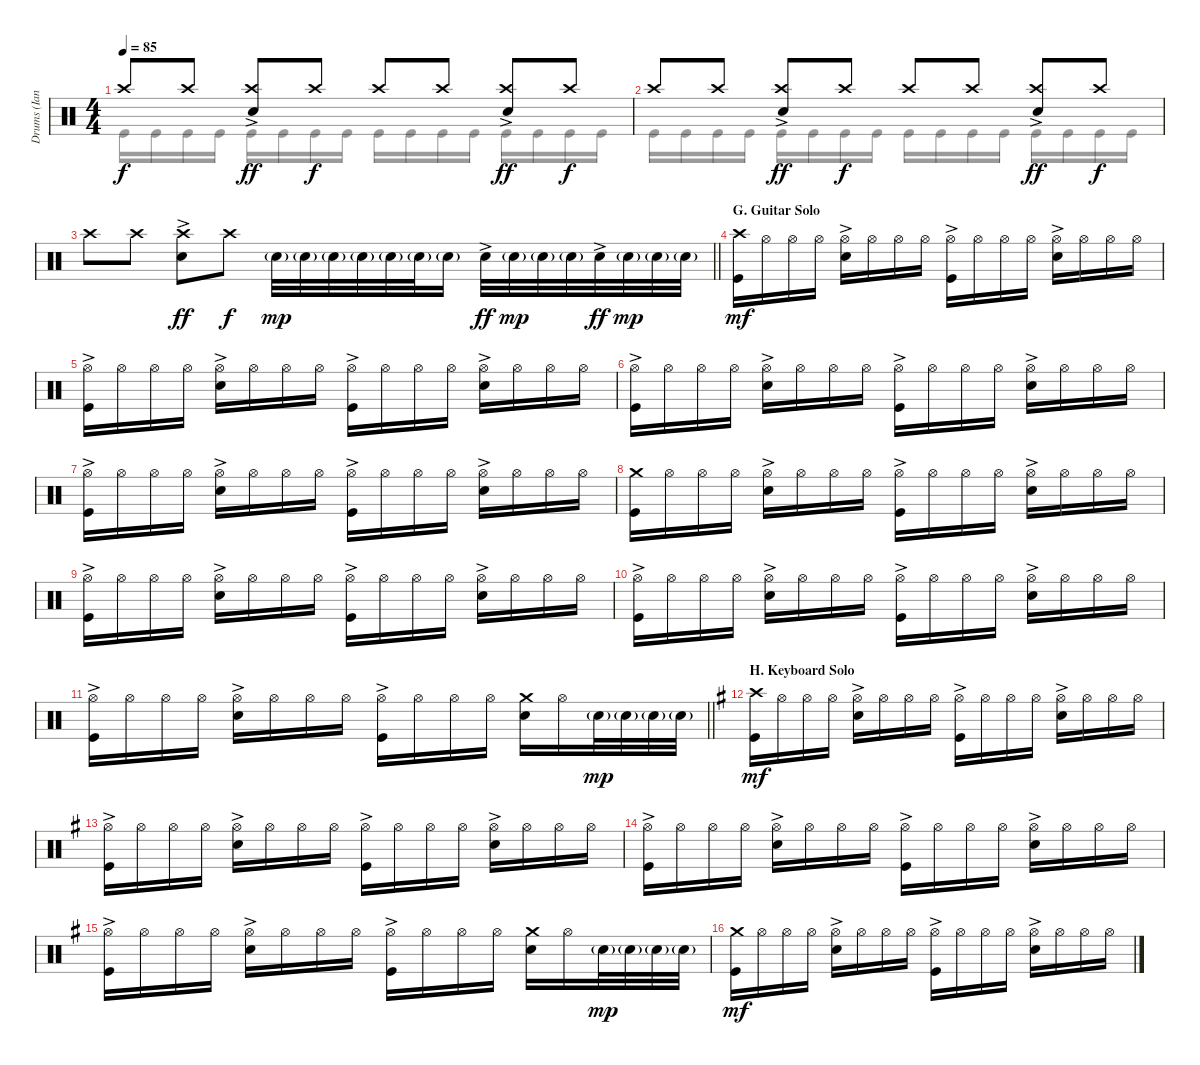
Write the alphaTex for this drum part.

\track ("Drums (Ian Paice)" "Drums (Ian") {instrument percussion}
\staff {score}
\articulation defaults
\voice
\ts (4 4)
\tempo 85
\clef neutral
\ks aminor "Crash high (hit)".8{dy f} "Crash high (hit)".8
("Crash high (hit)"{ac} "Electric Snare (hit)").8{dy ff} "Crash high (hit)".8{dy f} "Crash high (hit)".8 "Crash high (hit)".8 ("Crash high (hit)"{ac} "Electric Snare (hit)").8{dy ff} "Crash high (hit)".8{dy f} |
"Crash high (hit)".8 "Crash high (hit)".8 ("Crash high (hit)"{ac} "Electric Snare (hit)").8{dy ff} "Crash high (hit)".8{dy f} "Crash high (hit)".8 "Crash high (hit)".8 ("Crash high (hit)"{ac} "Electric Snare (hit)").8{dy ff} "Crash high (hit)".8{dy f} |
\barLineRight lightlight "Crash high (hit)".8 "Crash high (hit)".8
("Crash high (hit)"{ac} "Electric Snare (hit)").8{dy ff} "Crash high (hit)".8{dy f} "Electric Snare (hit)"{g}.32{dy mp} "Electric Snare (hit)"{g}.32 "Electric Snare (hit)"{g}.32 "Electric Snare (hit)"{g}.32 "Electric Snare (hit)"{g}.32 "Electric Snare (hit)"{g}.32 "Electric Snare (hit)"{g}.16 "Electric Snare (hit)"{ac}.32{dy ff} "Electric Snare (hit)"{g}.32{dy mp} "Electric Snare (hit)"{g}.32 "Electric Snare (hit)"{g}.32 "Electric Snare (hit)"{ac}.32{dy ff} "Electric Snare (hit)"{g}.32{dy mp} "Electric Snare (hit)"{g}.32 "Electric Snare (hit)"{g}.32 |
\section ("" "G. Guitar Solo")
("Crash high (hit)" "Kick (hit)").16{dy mf} "Hi-Hat (open)".16 "Hi-Hat (open)".16 "Hi-Hat (open)".16 ("Hi-Hat (open)"{ac} "Electric Snare (hit)").16 "Hi-Hat (open)".16 "Hi-Hat (open)".16 "Hi-Hat (open)".16 ("Hi-Hat (open)"{ac} "Kick (hit)").16 "Hi-Hat (open)".16 "Hi-Hat (open)".16 "Hi-Hat (open)".16 ("Hi-Hat (open)"{ac} "Electric Snare (hit)").16 "Hi-Hat (open)".16 "Hi-Hat (open)".16 "Hi-Hat (open)".16 |
("Hi-Hat (open)"{ac} "Kick (hit)").16 "Hi-Hat (open)".16 "Hi-Hat (open)".16 "Hi-Hat (open)".16 ("Hi-Hat (open)"{ac} "Electric Snare (hit)").16 "Hi-Hat (open)".16 "Hi-Hat (open)".16 "Hi-Hat (open)".16 ("Hi-Hat (open)"{ac} "Kick (hit)").16 "Hi-Hat (open)".16 "Hi-Hat (open)".16 "Hi-Hat (open)".16 ("Hi-Hat (open)"{ac} "Electric Snare (hit)").16 "Hi-Hat (open)".16 "Hi-Hat (open)".16 "Hi-Hat (open)".16 |
("Hi-Hat (open)"{ac} "Kick (hit)").16 "Hi-Hat (open)".16 "Hi-Hat (open)".16 "Hi-Hat (open)".16 ("Hi-Hat (open)"{ac} "Electric Snare (hit)").16 "Hi-Hat (open)".16 "Hi-Hat (open)".16 "Hi-Hat (open)".16 ("Hi-Hat (open)"{ac} "Kick (hit)").16 "Hi-Hat (open)".16 "Hi-Hat (open)".16 "Hi-Hat (open)".16 ("Hi-Hat (open)"{ac} "Electric Snare (hit)").16 "Hi-Hat (open)".16 "Hi-Hat (open)".16 "Hi-Hat (open)".16 |
("Hi-Hat (open)"{ac} "Kick (hit)").16 "Hi-Hat (open)".16 "Hi-Hat (open)".16 "Hi-Hat (open)".16 ("Hi-Hat (open)"{ac} "Electric Snare (hit)").16 "Hi-Hat (open)".16 "Hi-Hat (open)".16 "Hi-Hat (open)".16 ("Hi-Hat (open)"{ac} "Kick (hit)").16 "Hi-Hat (open)".16 "Hi-Hat (open)".16 "Hi-Hat (open)".16 ("Hi-Hat (open)"{ac} "Electric Snare (hit)").16 "Hi-Hat (open)".16 "Hi-Hat (open)".16 "Hi-Hat (open)".16 |
("Crash medium (hit)" "Kick (hit)").16 "Hi-Hat (open)".16 "Hi-Hat (open)".16 "Hi-Hat (open)".16 ("Hi-Hat (open)"{ac} "Electric Snare (hit)").16 "Hi-Hat (open)".16 "Hi-Hat (open)".16 "Hi-Hat (open)".16 ("Hi-Hat (open)"{ac} "Kick (hit)").16 "Hi-Hat (open)".16 "Hi-Hat (open)".16 "Hi-Hat (open)".16 ("Hi-Hat (open)"{ac} "Electric Snare (hit)").16 "Hi-Hat (open)".16 "Hi-Hat (open)".16 "Hi-Hat (open)".16 |
("Hi-Hat (open)"{ac} "Kick (hit)").16 "Hi-Hat (open)".16 "Hi-Hat (open)".16 "Hi-Hat (open)".16 ("Hi-Hat (open)"{ac} "Electric Snare (hit)").16 "Hi-Hat (open)".16 "Hi-Hat (open)".16 "Hi-Hat (open)".16 ("Hi-Hat (open)"{ac} "Kick (hit)").16 "Hi-Hat (open)".16 "Hi-Hat (open)".16 "Hi-Hat (open)".16 ("Hi-Hat (open)"{ac} "Electric Snare (hit)").16 "Hi-Hat (open)".16 "Hi-Hat (open)".16 "Hi-Hat (open)".16 |
("Hi-Hat (open)"{ac} "Kick (hit)").16 "Hi-Hat (open)".16 "Hi-Hat (open)".16 "Hi-Hat (open)".16 ("Hi-Hat (open)"{ac} "Electric Snare (hit)").16 "Hi-Hat (open)".16 "Hi-Hat (open)".16 "Hi-Hat (open)".16 ("Hi-Hat (open)"{ac} "Kick (hit)").16 "Hi-Hat (open)".16 "Hi-Hat (open)".16 "Hi-Hat (open)".16 ("Hi-Hat (open)"{ac} "Electric Snare (hit)").16 "Hi-Hat (open)".16 "Hi-Hat (open)".16 "Hi-Hat (open)".16 |
\barLineRight lightlight
("Hi-Hat (open)"{ac} "Kick (hit)").16 "Hi-Hat (open)".16 "Hi-Hat (open)".16 "Hi-Hat (open)".16 ("Hi-Hat (open)"{ac} "Electric Snare (hit)").16 "Hi-Hat (open)".16 "Hi-Hat (open)".16 "Hi-Hat (open)".16 ("Hi-Hat (open)"{ac} "Kick (hit)").16 "Hi-Hat (open)".16 "Hi-Hat (open)".16 "Hi-Hat (open)".16 ("Crash medium (hit)" "Electric Snare (hit)").16 "Hi-Hat (open)".16 "Electric Snare (hit)"{g}.32{dy mp} "Electric Snare (hit)"{g}.32 "Electric Snare (hit)"{g}.32 "Electric Snare (hit)"{g}.32 |
\section ("" "H. Keyboard Solo")
\ks eminor
("Crash high (hit)" "Kick (hit)").16{dy mf} "Hi-Hat (open)".16 "Hi-Hat (open)".16 "Hi-Hat (open)".16 ("Hi-Hat (open)"{ac} "Electric Snare (hit)").16 "Hi-Hat (open)".16 "Hi-Hat (open)".16 "Hi-Hat (open)".16 ("Hi-Hat (open)"{ac} "Kick (hit)").16 "Hi-Hat (open)".16 "Hi-Hat (open)".16 "Hi-Hat (open)".16 ("Hi-Hat (open)"{ac} "Electric Snare (hit)").16 "Hi-Hat (open)".16 "Hi-Hat (open)".16 "Hi-Hat (open)".16 |
("Hi-Hat (open)"{ac} "Kick (hit)").16 "Hi-Hat (open)".16 "Hi-Hat (open)".16 "Hi-Hat (open)".16 ("Hi-Hat (open)"{ac} "Electric Snare (hit)").16 "Hi-Hat (open)".16 "Hi-Hat (open)".16 "Hi-Hat (open)".16 ("Hi-Hat (open)"{ac} "Kick (hit)").16 "Hi-Hat (open)".16 "Hi-Hat (open)".16 "Hi-Hat (open)".16 ("Hi-Hat (open)"{ac} "Electric Snare (hit)").16 "Hi-Hat (open)".16 "Hi-Hat (open)".16 "Hi-Hat (open)".16 |
("Hi-Hat (open)"{ac} "Kick (hit)").16 "Hi-Hat (open)".16 "Hi-Hat (open)".16 "Hi-Hat (open)".16 ("Hi-Hat (open)"{ac} "Electric Snare (hit)").16 "Hi-Hat (open)".16 "Hi-Hat (open)".16 "Hi-Hat (open)".16 ("Hi-Hat (open)"{ac} "Kick (hit)").16 "Hi-Hat (open)".16 "Hi-Hat (open)".16 "Hi-Hat (open)".16 ("Hi-Hat (open)"{ac} "Electric Snare (hit)").16 "Hi-Hat (open)".16 "Hi-Hat (open)".16 "Hi-Hat (open)".16 |
("Hi-Hat (open)"{ac} "Kick (hit)").16 "Hi-Hat (open)".16 "Hi-Hat (open)".16 "Hi-Hat (open)".16 ("Hi-Hat (open)"{ac} "Electric Snare (hit)").16 "Hi-Hat (open)".16 "Hi-Hat (open)".16 "Hi-Hat (open)".16 ("Hi-Hat (open)"{ac} "Kick (hit)").16 "Hi-Hat (open)".16 "Hi-Hat (open)".16 "Hi-Hat (open)".16 ("Crash medium (hit)" "Electric Snare (hit)").16 "Hi-Hat (open)".16 "Electric Snare (hit)"{g}.32{dy mp} "Electric Snare (hit)"{g}.32 "Electric Snare (hit)"{g}.32 "Electric Snare (hit)"{g}.32 |
("Crash medium (hit)" "Kick (hit)").16{dy mf} "Hi-Hat (open)".16 "Hi-Hat (open)".16 "Hi-Hat (open)".16 ("Hi-Hat (open)"{ac} "Electric Snare (hit)").16 "Hi-Hat (open)".16 "Hi-Hat (open)".16 "Hi-Hat (open)".16 ("Hi-Hat (open)"{ac} "Kick (hit)").16 "Hi-Hat (open)".16 "Hi-Hat (open)".16 "Hi-Hat (open)".16 ("Hi-Hat (open)"{ac} "Electric Snare (hit)").16 "Hi-Hat (open)".16 "Hi-Hat (open)".16 "Hi-Hat (open)".16
\voice
\clef neutral
\ottava regular
\simile none
\ks aminor "Kick (hit)".16{dy f} "Kick (hit)".16 "Kick (hit)".16 "Kick (hit)".16 "Kick (hit)".16 "Kick (hit)".16 "Kick (hit)".16 "Kick (hit)".16 "Kick (hit)".16 "Kick (hit)".16 "Kick (hit)".16 "Kick (hit)".16 "Kick (hit)".16 "Kick (hit)".16 "Kick (hit)".16 "Kick (hit)".16
|
"Kick (hit)".16 "Kick (hit)".16 "Kick (hit)".16 "Kick (hit)".16 "Kick (hit)".16 "Kick (hit)".16 "Kick (hit)".16 "Kick (hit)".16 "Kick (hit)".16 "Kick (hit)".16 "Kick (hit)".16 "Kick (hit)".16 "Kick (hit)".16 "Kick (hit)".16 "Kick (hit)".16 "Kick (hit)".16 |
\barLineRight lightlight
|
|
|
|
|
|
|
|
\barLineRight lightlight
|
\ks eminor
|
|
|
|
